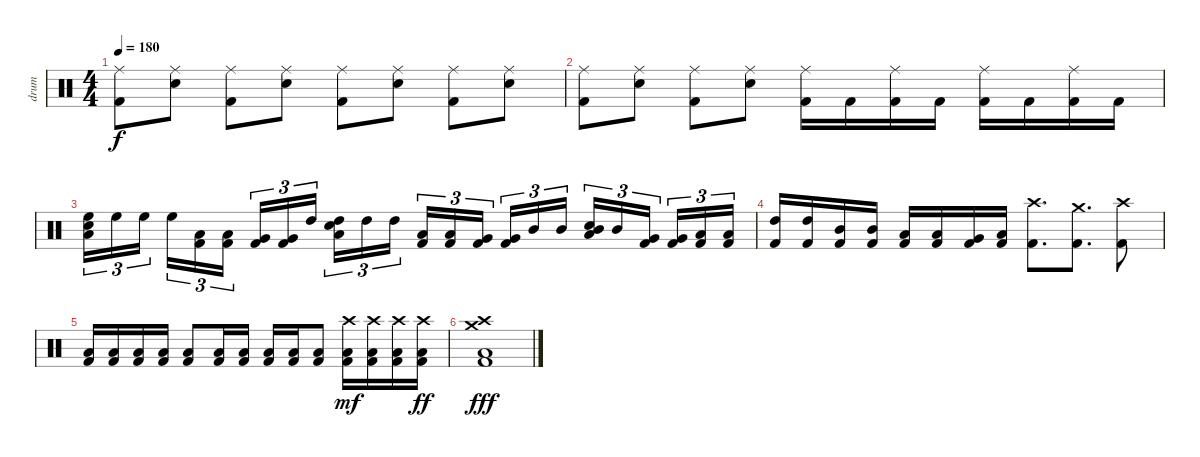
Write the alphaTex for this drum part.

\track ("drum" "drum") {instrument percussion}
\staff {score}
\articulation defaults
\ts (4 4)
\tempo 180
\clef neutral
\ks c
("Ride (middle)" "Kick (hit) 2").8{dy f} ("Ride (middle)" "Electric Snare (hit)").8 ("Ride (middle)" "Kick (hit) 2").8 ("Ride (middle)" "Electric Snare (hit)").8 ("Ride (middle)" "Kick (hit) 2").8 ("Ride (middle)" "Electric Snare (hit)").8 ("Ride (middle)" "Kick (hit) 2").8 ("Ride (middle)" "Electric Snare (hit)").8 |
("Ride (middle)" "Kick (hit) 2").8 ("Ride (middle)" "Electric Snare (hit)").8 ("Ride (middle)" "Kick (hit) 2").8 ("Ride (middle)" "Electric Snare (hit)").8 ("Ride (middle)" "Kick (hit) 2").16 "Kick (hit) 2".16 ("Ride (middle)" "Kick (hit) 2").16 "Kick (hit) 2".16 ("Ride (middle)" "Kick (hit) 2").16 "Kick (hit) 2".16 ("Ride (middle)" "Kick (hit) 2").16 "Kick (hit) 2".16 |
("High Floor Tom (hit)" "Electric Snare (hit)" "Low Tom (hit)").16{tu (3 2)} "High Floor Tom (hit)".16{tu (3 2)} "High Floor Tom (hit)".16{tu (3 2) beam splitsecondary} "High Floor Tom (hit)".16{tu (3 2)} ("Low Tom (hit)" "Kick (hit) 2").16{tu (3 2)} ("Low Tom (hit)" "Kick (hit) 2").16{tu (3 2)} ("Very Low Tom (hit)" "Kick (hit) 2").16{tu (3 2)} ("Very Low Tom (hit)" "Kick (hit) 2").16{tu (3 2)} "High Tom (hit)".16{tu (3 2) beam splitsecondary} ("High Tom (hit)" "Electric Snare (hit)" "Low Tom (hit)").16{tu (3 2)} "High Tom (hit)".16{tu (3 2)} "High Tom (hit)".16{tu (3 2)} ("Low Tom (hit)" "Kick (hit) 2").16{tu (3 2)} ("Low Tom (hit)" "Kick (hit) 2").16{tu (3 2)} ("Very Low Tom (hit)" "Kick (hit) 2").16{tu (3 2) beam splitsecondary} ("Very Low Tom (hit)" "Kick (hit) 2").16{tu (3 2)} "Mid Tom (hit)".16{tu (3 2)} "Mid Tom (hit)".16{tu (3 2)} ("Mid Tom (hit)" "Electric Snare (hit)" "Low Tom (hit)").16{tu (3 2)} "Mid Tom (hit)".16{tu (3 2)} ("Very Low Tom (hit)" "Kick (hit) 2").16{tu (3 2) beam splitsecondary} ("Very Low Tom (hit)" "Kick (hit) 2").16{tu (3 2)} ("Low Floor Tom (hit)" "Kick (hit) 2").16{tu (3 2)} ("Low Floor Tom (hit)" "Kick (hit) 2").16{tu (3 2)} |
("High Tom (hit)" "Kick (hit) 2").16 ("High Tom (hit)" "Kick (hit) 2").16 ("Mid Tom (hit)" "Kick (hit) 2").16 ("Mid Tom (hit)" "Kick (hit) 2").16 ("Low Tom (hit)" "Kick (hit) 2").16 ("Low Tom (hit)" "Kick (hit) 2").16 ("Very Low Tom (hit)" "Kick (hit) 2").16 ("Low Floor Tom (hit)" "Kick (hit) 2").16 ("Crash high (hit)" "Kick (hit) 2").8{d} ("Crash medium (hit)" "Kick (hit) 2").8{d} ("Crash high (hit)" "Kick (hit) 2").8 |
("Low Floor Tom (hit)" "Kick (hit) 2").16 ("Low Floor Tom (hit)" "Kick (hit) 2").16 ("Low Floor Tom (hit)" "Kick (hit) 2").16 ("Low Floor Tom (hit)" "Kick (hit) 2").16 ("Low Floor Tom (hit)" "Kick (hit) 2").8 ("Low Floor Tom (hit)" "Kick (hit) 2").16 ("Low Floor Tom (hit)" "Kick (hit) 2").16 ("Low Floor Tom (hit)" "Kick (hit) 2").16 ("Low Floor Tom (hit)" "Kick (hit) 2").16 ("Low Floor Tom (hit)" "Kick (hit) 2").8 ("Crash high (hit)" "Low Floor Tom (hit)" "Kick (hit) 2").16{dy mf} ("Crash high (hit)" "Low Floor Tom (hit)" "Kick (hit) 2").16 ("Crash high (hit)" "Low Floor Tom (hit)" "Kick (hit) 2").16 ("Crash high (hit)" "Low Floor Tom (hit)" "Kick (hit) 2").16{dy ff} |
("Crash high (hit)" "Crash medium (hit)" "Low Floor Tom (hit)" "Kick (hit) 2").1{dy fff}
